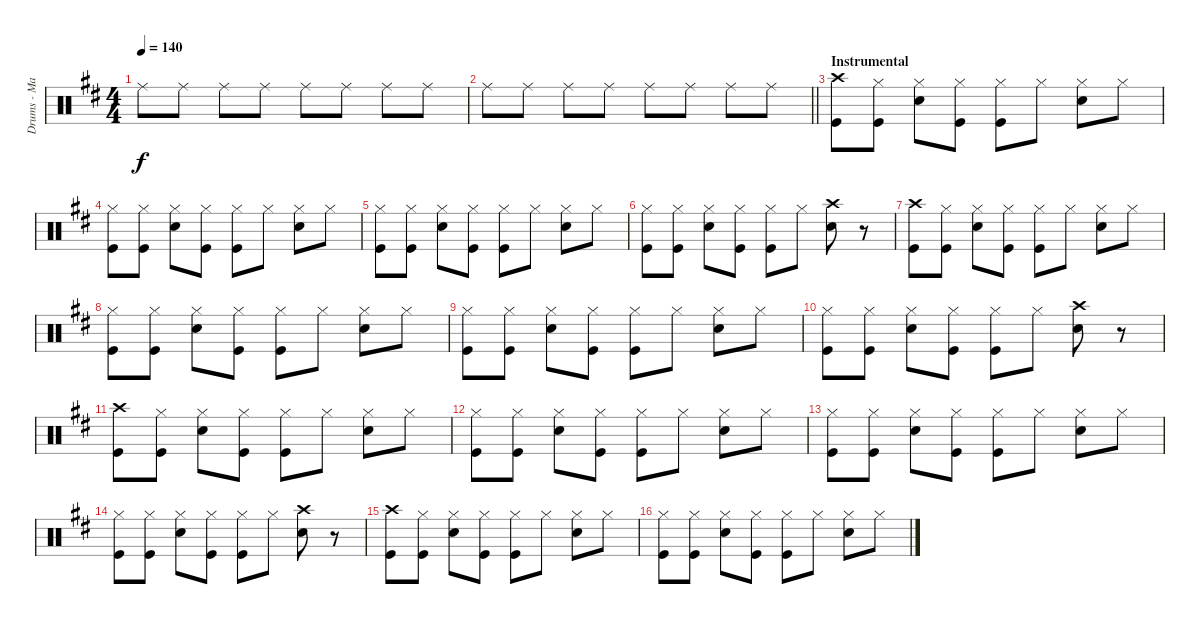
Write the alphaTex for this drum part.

\track ("Drums - Matt Helders" "Drums - Ma") {instrument percussion}
\staff {score}
\articulation defaults
\ts (4 4)
\tempo 140
\clef neutral
\ks d "Ride (middle)".8{dy f} "Ride (middle)".8 "Ride (middle)".8 "Ride (middle)".8 "Ride (middle)".8 "Ride (middle)".8 "Ride (middle)".8 "Ride (middle)".8
|
\barLineRight lightlight "Ride (middle)".8 "Ride (middle)".8 "Ride (middle)".8 "Ride (middle)".8 "Ride (middle)".8 "Ride (middle)".8 "Ride (middle)".8 "Ride (middle)".8
|
\section ("" "Instrumental")
("Crash high (hit)" "Kick (hit)").8 ("Hi-Hat (closed)" "Kick (hit)").8 ("Hi-Hat (closed)" "Snare (hit) 2").8 ("Hi-Hat (closed)" "Kick (hit)").8 ("Hi-Hat (closed)" "Kick (hit)").8 "Hi-Hat (closed)".8 ("Hi-Hat (closed)" "Snare (hit) 2").8 "Hi-Hat (closed)".8 |
("Hi-Hat (closed)" "Kick (hit)").8 ("Hi-Hat (closed)" "Kick (hit)").8 ("Hi-Hat (closed)" "Snare (hit) 2").8 ("Hi-Hat (closed)" "Kick (hit)").8 ("Hi-Hat (closed)" "Kick (hit)").8 "Hi-Hat (closed)".8 ("Hi-Hat (closed)" "Snare (hit) 2").8 "Hi-Hat (closed)".8 |
("Hi-Hat (closed)" "Kick (hit)").8 ("Hi-Hat (closed)" "Kick (hit)").8 ("Hi-Hat (closed)" "Snare (hit) 2").8 ("Hi-Hat (closed)" "Kick (hit)").8 ("Hi-Hat (closed)" "Kick (hit)").8 "Hi-Hat (closed)".8 ("Hi-Hat (closed)" "Snare (hit) 2").8 "Hi-Hat (closed)".8 |
("Hi-Hat (closed)" "Kick (hit)").8 ("Hi-Hat (closed)" "Kick (hit)").8 ("Hi-Hat (closed)" "Snare (hit) 2").8 ("Hi-Hat (closed)" "Kick (hit)").8 ("Hi-Hat (closed)" "Kick (hit)").8 "Hi-Hat (closed)".8 ("Crash high (hit)" "Snare (hit) 2").8 r.8 |
("Crash high (hit)" "Kick (hit)").8 ("Hi-Hat (closed)" "Kick (hit)").8 ("Hi-Hat (closed)" "Snare (hit) 2").8 ("Hi-Hat (closed)" "Kick (hit)").8 ("Hi-Hat (closed)" "Kick (hit)").8 "Hi-Hat (closed)".8 ("Hi-Hat (closed)" "Snare (hit) 2").8 "Hi-Hat (closed)".8 |
("Hi-Hat (closed)" "Kick (hit)").8 ("Hi-Hat (closed)" "Kick (hit)").8 ("Hi-Hat (closed)" "Snare (hit) 2").8 ("Hi-Hat (closed)" "Kick (hit)").8 ("Hi-Hat (closed)" "Kick (hit)").8 "Hi-Hat (closed)".8 ("Hi-Hat (closed)" "Snare (hit) 2").8 "Hi-Hat (closed)".8 |
("Hi-Hat (closed)" "Kick (hit)").8 ("Hi-Hat (closed)" "Kick (hit)").8 ("Hi-Hat (closed)" "Snare (hit) 2").8 ("Hi-Hat (closed)" "Kick (hit)").8 ("Hi-Hat (closed)" "Kick (hit)").8 "Hi-Hat (closed)".8 ("Hi-Hat (closed)" "Snare (hit) 2").8 "Hi-Hat (closed)".8 |
("Hi-Hat (closed)" "Kick (hit)").8 ("Hi-Hat (closed)" "Kick (hit)").8 ("Hi-Hat (closed)" "Snare (hit) 2").8 ("Hi-Hat (closed)" "Kick (hit)").8 ("Hi-Hat (closed)" "Kick (hit)").8 "Hi-Hat (closed)".8 ("Crash high (hit)" "Snare (hit) 2").8 r.8 |
("Crash high (hit)" "Kick (hit)").8 ("Hi-Hat (closed)" "Kick (hit)").8 ("Hi-Hat (closed)" "Snare (hit) 2").8 ("Hi-Hat (closed)" "Kick (hit)").8 ("Hi-Hat (closed)" "Kick (hit)").8 "Hi-Hat (closed)".8 ("Hi-Hat (closed)" "Snare (hit) 2").8 "Hi-Hat (closed)".8 |
("Hi-Hat (closed)" "Kick (hit)").8 ("Hi-Hat (closed)" "Kick (hit)").8 ("Hi-Hat (closed)" "Snare (hit) 2").8 ("Hi-Hat (closed)" "Kick (hit)").8 ("Hi-Hat (closed)" "Kick (hit)").8 "Hi-Hat (closed)".8 ("Hi-Hat (closed)" "Snare (hit) 2").8 "Hi-Hat (closed)".8 |
("Hi-Hat (closed)" "Kick (hit)").8 ("Hi-Hat (closed)" "Kick (hit)").8 ("Hi-Hat (closed)" "Snare (hit) 2").8 ("Hi-Hat (closed)" "Kick (hit)").8 ("Hi-Hat (closed)" "Kick (hit)").8 "Hi-Hat (closed)".8 ("Hi-Hat (closed)" "Snare (hit) 2").8 "Hi-Hat (closed)".8 |
("Hi-Hat (closed)" "Kick (hit)").8 ("Hi-Hat (closed)" "Kick (hit)").8 ("Hi-Hat (closed)" "Snare (hit) 2").8 ("Hi-Hat (closed)" "Kick (hit)").8 ("Hi-Hat (closed)" "Kick (hit)").8 "Hi-Hat (closed)".8 ("Crash high (hit)" "Snare (hit) 2").8 r.8 |
("Crash high (hit)" "Kick (hit)").8 ("Hi-Hat (closed)" "Kick (hit)").8 ("Hi-Hat (closed)" "Snare (hit) 2").8 ("Hi-Hat (closed)" "Kick (hit)").8 ("Hi-Hat (closed)" "Kick (hit)").8 "Hi-Hat (closed)".8 ("Hi-Hat (closed)" "Snare (hit) 2").8 "Hi-Hat (closed)".8 |
("Hi-Hat (closed)" "Kick (hit)").8 ("Hi-Hat (closed)" "Kick (hit)").8 ("Hi-Hat (closed)" "Snare (hit) 2").8 ("Hi-Hat (closed)" "Kick (hit)").8 ("Hi-Hat (closed)" "Kick (hit)").8 "Hi-Hat (closed)".8 ("Hi-Hat (closed)" "Snare (hit) 2").8 "Hi-Hat (closed)".8
